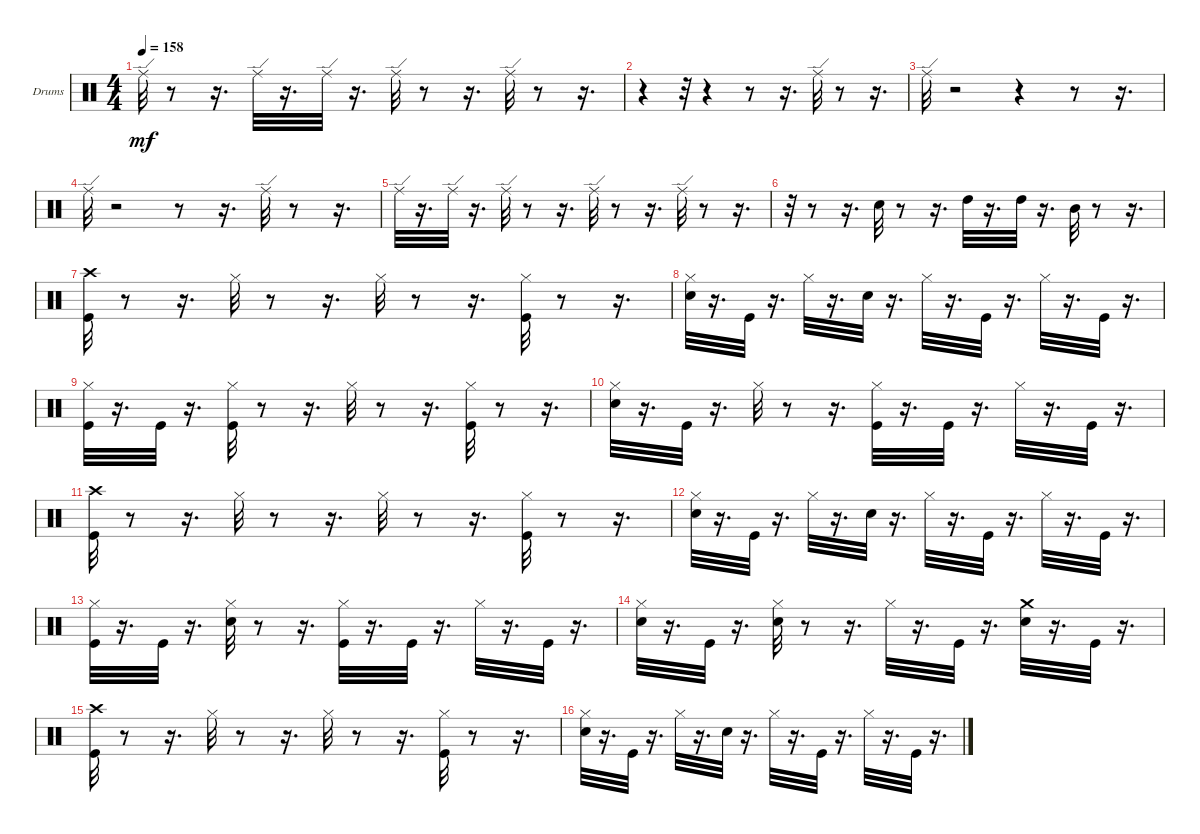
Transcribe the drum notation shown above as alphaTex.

\bracketExtendMode groupsimilarinstruments
\firstSystemTrackNameOrientation horizontal
\otherSystemsTrackNameOrientation horizontal
\track ("" "Drums") {instrument percussion}
\staff {score}
\articulation defaults
\ts (4 4)
\tempo 158
\clef neutral
\ks c "Ride (edge)".32{dy mf}
r.8 r.16{d} "Ride (edge)".32 r.16{d} "Ride (edge)".32 r.16{d} "Ride (edge)".32 r.8 r.16{d} "Ride (edge)".32 r.8 r.16{d} |
r.4 r.32 r.4 r.8 r.16{d} "Ride (edge)".32 r.8 r.16{d} |
"Ride (edge)".32 r.2 r.4 r.8 r.16{d} |
"Ride (edge)".32 r.2 r.8 r.16{d} "Ride (edge)".32 r.8 r.16{d} |
"Ride (edge)".32 r.16{d} "Ride (edge)".32 r.16{d} "Ride (edge)".32 r.8 r.16{d} "Ride (edge)".32 r.8 r.16{d} "Ride (edge)".32 r.8 r.16{d} |
r.32 r.8 r.16{d} "Snare (hit) 2".32 r.8 r.16{d} "High Tom (hit)".32 r.16{d} "High Tom (hit)".32 r.16{d} "Mid Tom (hit)".32 r.8 r.16{d} |
("Crash high (hit)" "Kick (hit)").32 r.8 r.16{d} "Hi-Hat (closed)".32 r.8 r.16{d} "Hi-Hat (closed)".32 r.8 r.16{d} ("Hi-Hat (closed)" "Kick (hit)").32 r.8 r.16{d} |
("Snare (hit) 2" "Hi-Hat (closed)").32 r.16{d} "Kick (hit)".32 r.16{d} "Hi-Hat (closed)".32 r.16{d} "Snare (hit) 2".32 r.16{d} "Hi-Hat (closed)".32 r.16{d} "Kick (hit)".32 r.16{d} "Hi-Hat (closed)".32 r.16{d} "Kick (hit)".32 r.16{d} |
("Hi-Hat (closed)" "Kick (hit)").32 r.16{d} "Kick (hit)".32 r.16{d} ("Kick (hit)" "Hi-Hat (closed)").32 r.8 r.16{d} "Hi-Hat (closed)".32 r.8 r.16{d} ("Hi-Hat (closed)" "Kick (hit)").32 r.8 r.16{d} |
("Snare (hit) 2" "Hi-Hat (closed)").32 r.16{d} "Kick (hit)".32 r.16{d} "Hi-Hat (closed)".32 r.8 r.16{d} ("Kick (hit)" "Hi-Hat (closed)").32 r.16{d} "Kick (hit)".32 r.16{d} "Hi-Hat (closed)".32 r.16{d} "Kick (hit)".32 r.16{d} |
("Crash high (hit)" "Kick (hit)").32 r.8 r.16{d} "Hi-Hat (closed)".32 r.8 r.16{d} "Hi-Hat (closed)".32 r.8 r.16{d} ("Hi-Hat (closed)" "Kick (hit)").32 r.8 r.16{d} |
("Snare (hit) 2" "Hi-Hat (closed)").32 r.16{d} "Kick (hit)".32 r.16{d} "Hi-Hat (closed)".32 r.16{d} "Snare (hit) 2".32 r.16{d} "Hi-Hat (closed)".32 r.16{d} "Kick (hit)".32 r.16{d} "Hi-Hat (closed)".32 r.16{d} "Kick (hit)".32 r.16{d} |
("Hi-Hat (closed)" "Kick (hit)").32 r.16{d} "Kick (hit)".32 r.16{d} ("Snare (hit) 2" "Hi-Hat (closed)").32 r.8 r.16{d} ("Kick (hit)" "Hi-Hat (closed)").32 r.16{d} "Kick (hit)".32 r.16{d} "Hi-Hat (closed)".32 r.16{d} "Kick (hit)".32 r.16{d} |
("Snare (hit) 2" "Hi-Hat (closed)").32 r.16{d} "Kick (hit)".32 r.16{d} ("Snare (hit) 2" "Hi-Hat (closed)").32 r.8 r.16{d} "Hi-Hat (closed)".32 r.16{d} "Kick (hit)".32 r.16{d} ("Crash medium (hit)" "Snare (hit) 2").32 r.16{d} "Kick (hit)".32 r.16{d} |
("Crash high (hit)" "Kick (hit)").32 r.8 r.16{d} "Hi-Hat (closed)".32 r.8 r.16{d} "Hi-Hat (closed)".32 r.8 r.16{d} ("Hi-Hat (closed)" "Kick (hit)").32 r.8 r.16{d} |
("Snare (hit) 2" "Hi-Hat (closed)").32 r.16{d} "Kick (hit)".32 r.16{d} "Hi-Hat (closed)".32 r.16{d} "Snare (hit) 2".32 r.16{d} "Hi-Hat (closed)".32 r.16{d} "Kick (hit)".32 r.16{d} "Hi-Hat (closed)".32 r.16{d} "Kick (hit)".32 r.16{d}
